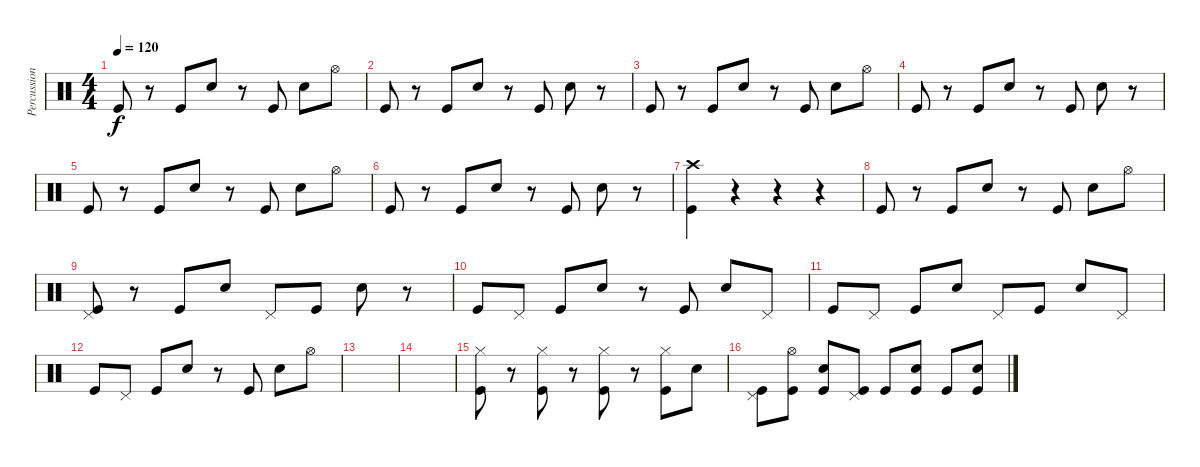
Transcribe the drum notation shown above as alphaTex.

\track ("Percussion" "Percussion") {instrument percussion}
\staff {score}
\articulation defaults
\ts (4 4)
\tempo 120
\clef neutral
\ks c "Kick (hit)".8{dy f}
r.8 "Kick (hit)".8 "Electric Snare (hit)".8 r.8 "Kick (hit)".8 "Electric Snare (hit)".8 "Hi-Hat (open)".8 |
"Kick (hit)".8 r.8 "Kick (hit)".8 "Electric Snare (hit)".8 r.8 "Kick (hit)".8 "Electric Snare (hit)".8 r.8 |
"Kick (hit)".8 r.8 "Kick (hit)".8 "Electric Snare (hit)".8 r.8 "Kick (hit)".8 "Electric Snare (hit)".8 "Hi-Hat (open)".8 |
"Kick (hit)".8 r.8 "Kick (hit)".8 "Electric Snare (hit)".8 r.8 "Kick (hit)".8 "Electric Snare (hit)".8 r.8 |
"Kick (hit)".8 r.8 "Kick (hit)".8 "Electric Snare (hit)".8 r.8 "Kick (hit)".8 "Electric Snare (hit)".8 "Hi-Hat (open)".8 |
"Kick (hit)".8 r.8 "Kick (hit)".8 "Electric Snare (hit)".8 r.8 "Kick (hit)".8 "Electric Snare (hit)".8 r.8 |
("Crash high (hit)" "Kick (hit)").4 r.4 r.4 r.4 |
"Kick (hit)".8 r.8 "Kick (hit)".8 "Electric Snare (hit)".8 r.8 "Kick (hit)".8 "Electric Snare (hit)".8 "Hi-Hat (open)".8 |
("Pedal Hi-Hat (hit)" "Kick (hit)").8 r.8 "Kick (hit)".8 "Electric Snare (hit)".8 "Pedal Hi-Hat (hit)".8 "Kick (hit)".8 "Electric Snare (hit)".8 r.8 |
"Kick (hit)".8 "Pedal Hi-Hat (hit)".8 "Kick (hit)".8 "Electric Snare (hit)".8 r.8 "Kick (hit)".8 "Electric Snare (hit)".8 "Pedal Hi-Hat (hit)".8 |
"Kick (hit)".8 "Pedal Hi-Hat (hit)".8 "Kick (hit)".8 "Electric Snare (hit)".8 "Pedal Hi-Hat (hit)".8 "Kick (hit)".8 "Electric Snare (hit)".8 "Pedal Hi-Hat (hit)".8 |
"Kick (hit)".8 "Pedal Hi-Hat (hit)".8 "Kick (hit)".8 "Electric Snare (hit)".8 r.8 "Kick (hit)".8 "Electric Snare (hit)".8 "Hi-Hat (open)".8 |
|
|
("Hi-Hat (closed)" "Kick (hit)").8 r.8 ("Hi-Hat (closed)" "Kick (hit)").8 r.8 ("Hi-Hat (closed)" "Kick (hit)").8 r.8 ("Hi-Hat (closed)" "Kick (hit)").8 "Snare (hit) 2".8 |
("Pedal Hi-Hat (hit)" "Kick (hit)").8 ("Hi-Hat (open)" "Kick (hit)").8 ("Snare (hit) 2" "Kick (hit)").8 ("Pedal Hi-Hat (hit)" "Kick (hit)").8 "Kick (hit)".8 ("Snare (hit) 2" "Kick (hit)").8 "Kick (hit)".8 ("Snare (hit) 2" "Kick (hit)").8
